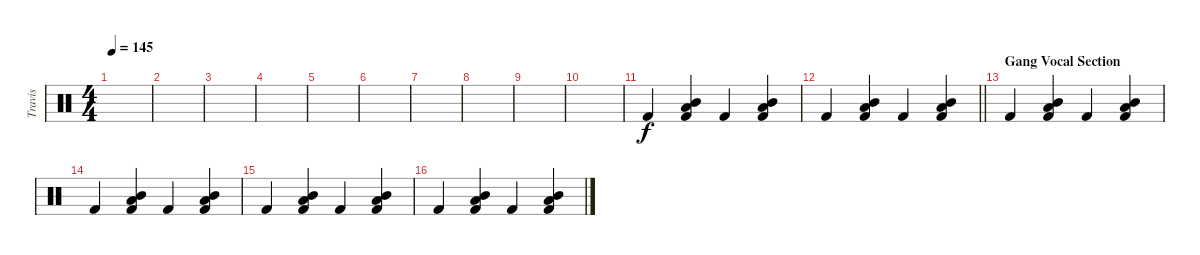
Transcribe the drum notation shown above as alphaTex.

\track ("Travis" "Travis") {instrument percussion}
\staff {score}
\articulation defaults
\ts (4 4)
\tempo 145
\clef neutral
\ks c
|
|
|
|
|
|
|
|
|
|
"Kick (hit) 2".4 ("Mid Tom (hit)" "Low Floor Tom (hit)" "Kick (hit) 2").4 "Kick (hit) 2".4 ("Mid Tom (hit)" "Low Floor Tom (hit)" "Kick (hit) 2").4 |
\barLineRight lightlight "Kick (hit) 2".4
("Mid Tom (hit)" "Low Floor Tom (hit)" "Kick (hit) 2").4 "Kick (hit) 2".4 ("Mid Tom (hit)" "Low Floor Tom (hit)" "Kick (hit) 2").4 |
\section ("" "Gang Vocal Section")
"Kick (hit) 2".4 ("Mid Tom (hit)" "Low Floor Tom (hit)" "Kick (hit) 2").4 "Kick (hit) 2".4 ("Mid Tom (hit)" "Low Floor Tom (hit)" "Kick (hit) 2").4 |
"Kick (hit) 2".4 ("Mid Tom (hit)" "Low Floor Tom (hit)" "Kick (hit) 2").4 "Kick (hit) 2".4 ("Mid Tom (hit)" "Low Floor Tom (hit)" "Kick (hit) 2").4 |
"Kick (hit) 2".4 ("Mid Tom (hit)" "Low Floor Tom (hit)" "Kick (hit) 2").4 "Kick (hit) 2".4 ("Mid Tom (hit)" "Low Floor Tom (hit)" "Kick (hit) 2").4 |
"Kick (hit) 2".4 ("Mid Tom (hit)" "Low Floor Tom (hit)" "Kick (hit) 2").4 "Kick (hit) 2".4 ("Mid Tom (hit)" "Low Floor Tom (hit)" "Kick (hit) 2").4
